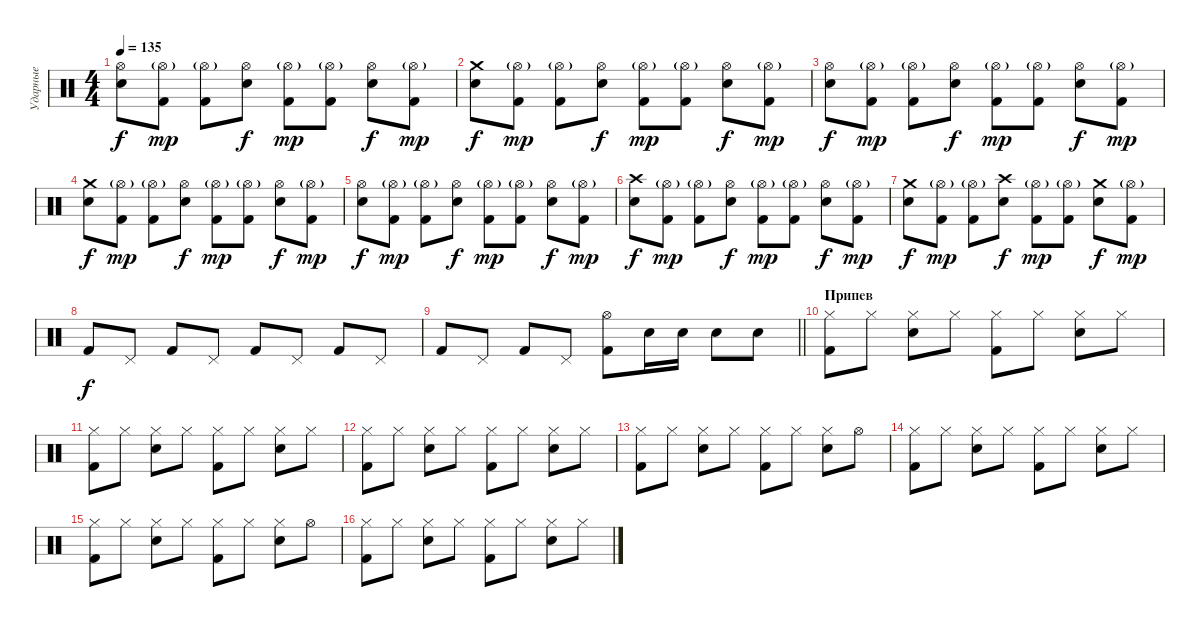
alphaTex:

\track ("Ударные" "Ударные") {instrument percussion}
\staff {score}
\articulation defaults
\ts (4 4)
\tempo 135
\clef neutral
\ks c
("Hi-Hat (open)" "Electric Snare (hit)").8{dy f} ("Hi-Hat (open)"{g} "Kick (hit) 2").8{dy mp} ("Hi-Hat (open)"{g} "Kick (hit) 2").8 ("Hi-Hat (open)" "Electric Snare (hit)").8{dy f} ("Hi-Hat (open)"{g} "Kick (hit) 2").8{dy mp} ("Hi-Hat (open)"{g} "Kick (hit) 2").8 ("Hi-Hat (open)" "Electric Snare (hit)").8{dy f} ("Hi-Hat (open)"{g} "Kick (hit) 2").8{dy mp} |
("Crash medium (hit)" "Electric Snare (hit)").8{dy f} ("Hi-Hat (open)"{g} "Kick (hit) 2").8{dy mp} ("Hi-Hat (open)"{g} "Kick (hit) 2").8 ("Hi-Hat (open)" "Electric Snare (hit)").8{dy f} ("Hi-Hat (open)"{g} "Kick (hit) 2").8{dy mp} ("Hi-Hat (open)"{g} "Kick (hit) 2").8 ("Hi-Hat (open)" "Electric Snare (hit)").8{dy f} ("Hi-Hat (open)"{g} "Kick (hit) 2").8{dy mp} |
("Hi-Hat (open)" "Electric Snare (hit)").8{dy f} ("Hi-Hat (open)"{g} "Kick (hit) 2").8{dy mp} ("Hi-Hat (open)"{g} "Kick (hit) 2").8 ("Hi-Hat (open)" "Electric Snare (hit)").8{dy f} ("Hi-Hat (open)"{g} "Kick (hit) 2").8{dy mp} ("Hi-Hat (open)"{g} "Kick (hit) 2").8 ("Hi-Hat (open)" "Electric Snare (hit)").8{dy f} ("Hi-Hat (open)"{g} "Kick (hit) 2").8{dy mp} |
("Crash medium (hit)" "Electric Snare (hit)").8{dy f} ("Hi-Hat (open)"{g} "Kick (hit) 2").8{dy mp} ("Hi-Hat (open)"{g} "Kick (hit) 2").8 ("Hi-Hat (open)" "Electric Snare (hit)").8{dy f} ("Hi-Hat (open)"{g} "Kick (hit) 2").8{dy mp} ("Hi-Hat (open)"{g} "Kick (hit) 2").8 ("Hi-Hat (open)" "Electric Snare (hit)").8{dy f} ("Hi-Hat (open)"{g} "Kick (hit) 2").8{dy mp} |
("Hi-Hat (open)" "Electric Snare (hit)").8{dy f} ("Hi-Hat (open)"{g} "Kick (hit) 2").8{dy mp} ("Hi-Hat (open)"{g} "Kick (hit) 2").8 ("Hi-Hat (open)" "Electric Snare (hit)").8{dy f} ("Hi-Hat (open)"{g} "Kick (hit) 2").8{dy mp} ("Hi-Hat (open)"{g} "Kick (hit) 2").8 ("Hi-Hat (open)" "Electric Snare (hit)").8{dy f} ("Hi-Hat (open)"{g} "Kick (hit) 2").8{dy mp} |
("Crash high (hit)" "Electric Snare (hit)").8{dy f} ("Hi-Hat (open)"{g} "Kick (hit) 2").8{dy mp} ("Hi-Hat (open)"{g} "Kick (hit) 2").8 ("Hi-Hat (open)" "Electric Snare (hit)").8{dy f} ("Hi-Hat (open)"{g} "Kick (hit) 2").8{dy mp} ("Hi-Hat (open)"{g} "Kick (hit) 2").8 ("Hi-Hat (open)" "Electric Snare (hit)").8{dy f} ("Hi-Hat (open)"{g} "Kick (hit) 2").8{dy mp} |
("Crash medium (hit)" "Electric Snare (hit)").8{dy f} ("Hi-Hat (open)"{g} "Kick (hit) 2").8{dy mp} ("Hi-Hat (open)"{g} "Kick (hit) 2").8 ("Crash high (hit)" "Electric Snare (hit)").8{dy f} ("Hi-Hat (open)"{g} "Kick (hit) 2").8{dy mp} ("Hi-Hat (open)"{g} "Kick (hit) 2").8 ("Crash medium (hit)" "Electric Snare (hit)").8{dy f} ("Hi-Hat (open)"{g} "Kick (hit) 2").8{dy mp} |
"Kick (hit) 2".8{dy f} "Pedal Hi-Hat (hit)".8 "Kick (hit) 2".8 "Pedal Hi-Hat (hit)".8 "Kick (hit) 2".8 "Pedal Hi-Hat (hit)".8 "Kick (hit) 2".8 "Pedal Hi-Hat (hit)".8 |
\barLineRight lightlight "Kick (hit) 2".8 "Pedal Hi-Hat (hit)".8 "Kick (hit) 2".8 "Pedal Hi-Hat (hit)".8
("Hi-Hat (open)" "Kick (hit) 2").8 "Electric Snare (hit)".16 "Electric Snare (hit)".16 "Electric Snare (hit)".8 "Electric Snare (hit)".8 |
\section ("" "Припев")
("Hi-Hat (closed)" "Kick (hit) 2").8 "Hi-Hat (closed)".8 ("Hi-Hat (closed)" "Electric Snare (hit)").8 "Hi-Hat (closed)".8 ("Hi-Hat (closed)" "Kick (hit) 2").8 "Hi-Hat (closed)".8 ("Hi-Hat (closed)" "Electric Snare (hit)").8 "Hi-Hat (closed)".8 |
("Hi-Hat (closed)" "Kick (hit) 2").8 "Hi-Hat (closed)".8 ("Hi-Hat (closed)" "Electric Snare (hit)").8 "Hi-Hat (closed)".8 ("Hi-Hat (closed)" "Kick (hit) 2").8 "Hi-Hat (closed)".8 ("Hi-Hat (closed)" "Electric Snare (hit)").8 "Hi-Hat (closed)".8 |
("Hi-Hat (closed)" "Kick (hit) 2").8 "Hi-Hat (closed)".8 ("Hi-Hat (closed)" "Electric Snare (hit)").8 "Hi-Hat (closed)".8 ("Hi-Hat (closed)" "Kick (hit) 2").8 "Hi-Hat (closed)".8 ("Hi-Hat (closed)" "Electric Snare (hit)").8 "Hi-Hat (closed)".8 |
("Hi-Hat (closed)" "Kick (hit) 2").8 "Hi-Hat (closed)".8 ("Hi-Hat (closed)" "Electric Snare (hit)").8 "Hi-Hat (closed)".8 ("Hi-Hat (closed)" "Kick (hit) 2").8 "Hi-Hat (closed)".8 ("Hi-Hat (closed)" "Electric Snare (hit)").8 "Hi-Hat (open)".8 |
("Hi-Hat (closed)" "Kick (hit) 2").8 "Hi-Hat (closed)".8 ("Hi-Hat (closed)" "Electric Snare (hit)").8 "Hi-Hat (closed)".8 ("Hi-Hat (closed)" "Kick (hit) 2").8 "Hi-Hat (closed)".8 ("Hi-Hat (closed)" "Electric Snare (hit)").8 "Hi-Hat (closed)".8 |
("Hi-Hat (closed)" "Kick (hit) 2").8 "Hi-Hat (closed)".8 ("Hi-Hat (closed)" "Electric Snare (hit)").8 "Hi-Hat (closed)".8 ("Hi-Hat (closed)" "Kick (hit) 2").8 "Hi-Hat (closed)".8 ("Hi-Hat (closed)" "Electric Snare (hit)").8 "Hi-Hat (open)".8 |
("Hi-Hat (closed)" "Kick (hit) 2").8 "Hi-Hat (closed)".8 ("Hi-Hat (closed)" "Electric Snare (hit)").8 "Hi-Hat (closed)".8 ("Hi-Hat (closed)" "Kick (hit) 2").8 "Hi-Hat (closed)".8 ("Hi-Hat (closed)" "Electric Snare (hit)").8 "Hi-Hat (closed)".8
